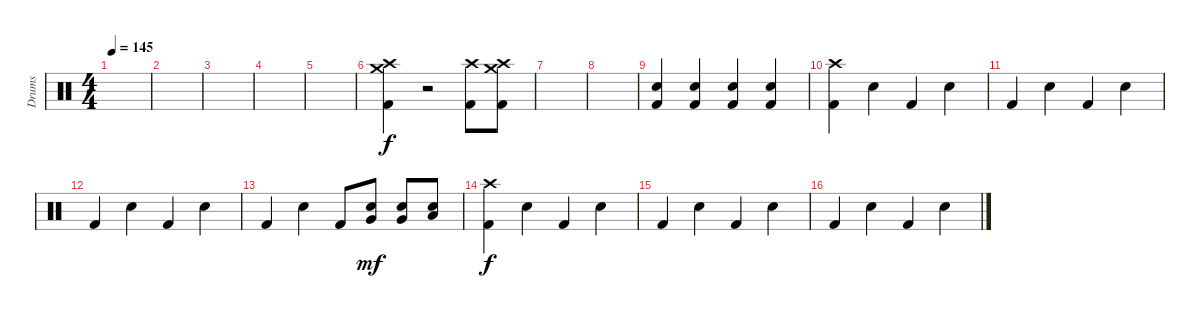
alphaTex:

\track ("Drums" "Drums") {instrument percussion}
\staff {score}
\articulation defaults
\ts (4 4)
\tempo 145
\clef neutral
\ks c
|
|
|
|
|
("Crash high (hit)" "Crash medium (hit)" "Kick (hit) 2").4 r.2 ("Crash high (hit)" "Kick (hit) 2").8 ("Crash high (hit)" "Crash medium (hit)" "Kick (hit) 2").8 |
|
|
("Snare (hit) 2" "Kick (hit) 2").4 ("Snare (hit) 2" "Kick (hit) 2").4 ("Snare (hit) 2" "Kick (hit) 2").4 ("Snare (hit) 2" "Kick (hit) 2").4 |
("Crash high (hit)" "Kick (hit) 2").4 "Snare (hit) 2".4 "Kick (hit) 2".4 "Snare (hit) 2".4 |
"Kick (hit) 2".4 "Snare (hit) 2".4 "Kick (hit) 2".4 "Snare (hit) 2".4 |
"Kick (hit) 2".4 "Snare (hit) 2".4 "Kick (hit) 2".4 "Snare (hit) 2".4 |
"Kick (hit) 2".4 "Snare (hit) 2".4 "Kick (hit) 2".8 ("Snare (hit) 2" "Very Low Tom (hit)").8{dy mf} ("Snare (hit) 2" "Very Low Tom (hit)").8 ("Snare (hit) 2" "Low Floor Tom (hit)").8 |
("Crash high (hit)" "Kick (hit) 2").4{dy f} "Snare (hit) 2".4 "Kick (hit) 2".4 "Snare (hit) 2".4 |
"Kick (hit) 2".4 "Snare (hit) 2".4 "Kick (hit) 2".4 "Snare (hit) 2".4 |
"Kick (hit) 2".4 "Snare (hit) 2".4 "Kick (hit) 2".4 "Snare (hit) 2".4
